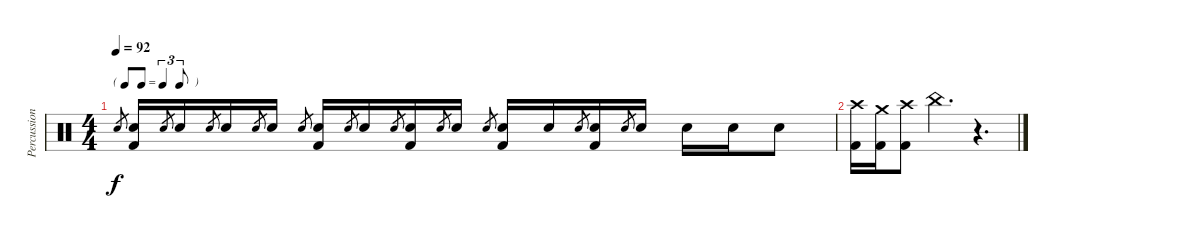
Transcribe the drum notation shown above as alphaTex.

\track ("Percussion" "Percussion") {instrument percussion}
\staff {score}
\articulation defaults
\ts (4 4)
\tf triplet8th
\tempo 92
\clef neutral
\ks c "Snare (hit) 2".8{gr dy f}
("Snare (hit) 2" "Kick (hit) 2").16 "Snare (hit) 2".8{gr} "Snare (hit) 2".16 "Snare (hit) 2".8{gr} "Snare (hit) 2".16 "Snare (hit) 2".8{gr} "Snare (hit) 2".16 "Snare (hit) 2".8{gr} ("Snare (hit) 2" "Kick (hit) 2").16 "Snare (hit) 2".8{gr} "Snare (hit) 2".16 "Snare (hit) 2".8{gr} ("Snare (hit) 2" "Kick (hit) 2").16 "Snare (hit) 2".8{gr} "Snare (hit) 2".16 "Snare (hit) 2".8{gr} ("Snare (hit) 2" "Kick (hit) 2").16 "Snare (hit) 2".16 "Snare (hit) 2".8{gr} ("Snare (hit) 2" "Kick (hit) 2").16 "Snare (hit) 2".8{gr} "Snare (hit) 2".16 "Snare (hit) 2".16 "Snare (hit) 2".16 "Snare (hit) 2".8 |
("Kick (hit) 2" "Crash high (hit)").16 ("Kick (hit) 2" "Crash medium (hit)").16 ("Kick (hit) 2" "Crash high (hit)").8 "China (hit)".4{d} r.4{d}
